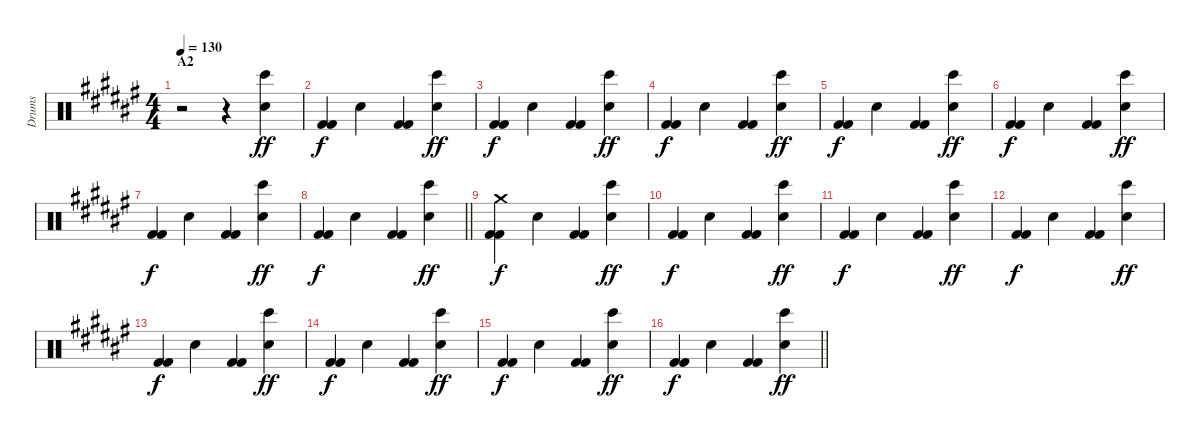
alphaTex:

\track ("Drums" "Drums") {instrument percussion}
\staff {score}
\articulation defaults
\ts (4 4)
\section ("" "A2")
\tempo 130
\clef neutral
\ks d#minor
r.2{dy f} r.4 ("Bongo High (hit)" "Snare (hit) 2").4{dy ff} |
("Kick (hit) 2" "Kick (hit) 2").4{dy f} "Snare (hit) 2".4 ("Kick (hit) 2" "Kick (hit) 2").4 ("Bongo High (hit)" "Snare (hit) 2").4{dy ff} |
("Kick (hit) 2" "Kick (hit) 2").4{dy f} "Snare (hit) 2".4 ("Kick (hit) 2" "Kick (hit) 2").4 ("Bongo High (hit)" "Snare (hit) 2").4{dy ff} |
("Kick (hit) 2" "Kick (hit) 2").4{dy f} "Snare (hit) 2".4 ("Kick (hit) 2" "Kick (hit) 2").4 ("Bongo High (hit)" "Snare (hit) 2").4{dy ff} |
("Kick (hit) 2" "Kick (hit) 2").4{dy f} "Snare (hit) 2".4 ("Kick (hit) 2" "Kick (hit) 2").4 ("Bongo High (hit)" "Snare (hit) 2").4{dy ff} |
("Kick (hit) 2" "Kick (hit) 2").4{dy f} "Snare (hit) 2".4 ("Kick (hit) 2" "Kick (hit) 2").4 ("Bongo High (hit)" "Snare (hit) 2").4{dy ff} |
("Kick (hit) 2" "Kick (hit) 2").4{dy f} "Snare (hit) 2".4 ("Kick (hit) 2" "Kick (hit) 2").4 ("Bongo High (hit)" "Snare (hit) 2").4{dy ff} |
\barLineRight lightlight
("Kick (hit) 2" "Kick (hit) 2").4{dy f} "Snare (hit) 2".4 ("Kick (hit) 2" "Kick (hit) 2").4 ("Bongo High (hit)" "Snare (hit) 2").4{dy ff} |
("Crash medium (hit)" "Kick (hit) 2" "Kick (hit) 2").4{dy f} "Snare (hit) 2".4 ("Kick (hit) 2" "Kick (hit) 2").4 ("Bongo High (hit)" "Snare (hit) 2").4{dy ff} |
("Kick (hit) 2" "Kick (hit) 2").4{dy f} "Snare (hit) 2".4 ("Kick (hit) 2" "Kick (hit) 2").4 ("Bongo High (hit)" "Snare (hit) 2").4{dy ff} |
("Kick (hit) 2" "Kick (hit) 2").4{dy f} "Snare (hit) 2".4 ("Kick (hit) 2" "Kick (hit) 2").4 ("Bongo High (hit)" "Snare (hit) 2").4{dy ff} |
("Kick (hit) 2" "Kick (hit) 2").4{dy f} "Snare (hit) 2".4 ("Kick (hit) 2" "Kick (hit) 2").4 ("Bongo High (hit)" "Snare (hit) 2").4{dy ff} |
("Kick (hit) 2" "Kick (hit) 2").4{dy f} "Snare (hit) 2".4 ("Kick (hit) 2" "Kick (hit) 2").4 ("Bongo High (hit)" "Snare (hit) 2").4{dy ff} |
("Kick (hit) 2" "Kick (hit) 2").4{dy f} "Snare (hit) 2".4 ("Kick (hit) 2" "Kick (hit) 2").4 ("Bongo High (hit)" "Snare (hit) 2").4{dy ff} |
("Kick (hit) 2" "Kick (hit) 2").4{dy f} "Snare (hit) 2".4 ("Kick (hit) 2" "Kick (hit) 2").4 ("Bongo High (hit)" "Snare (hit) 2").4{dy ff} |
\barLineRight lightlight
("Kick (hit) 2" "Kick (hit) 2").4{dy f} "Snare (hit) 2".4 ("Kick (hit) 2" "Kick (hit) 2").4 ("Bongo High (hit)" "Snare (hit) 2").4{dy ff}
